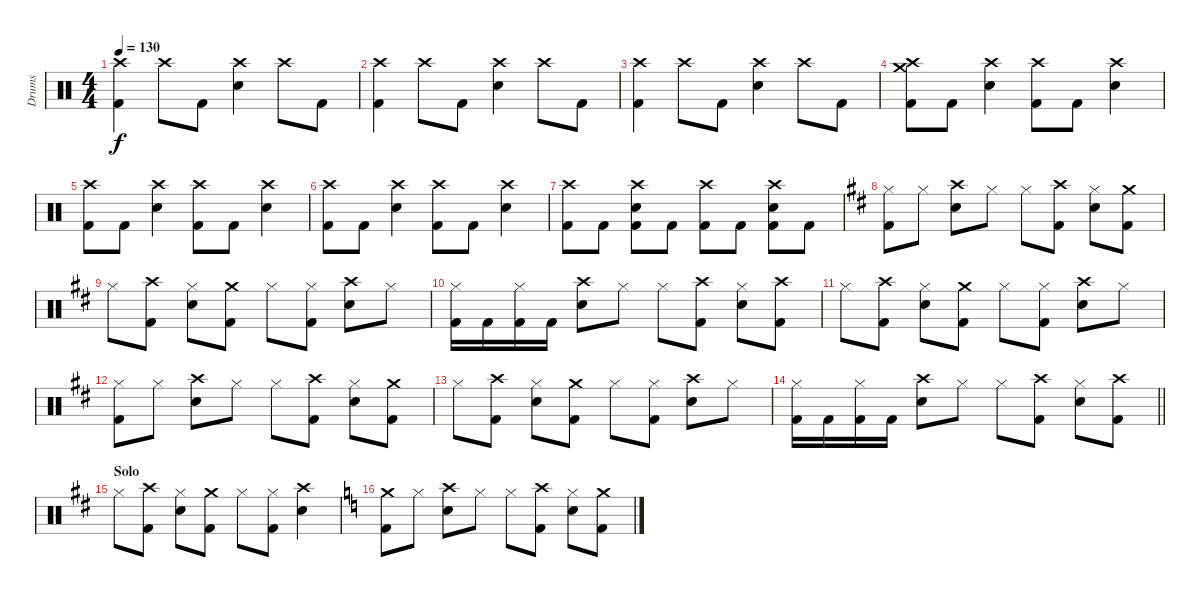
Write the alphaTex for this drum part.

\track ("Drums" "Drums") {instrument percussion}
\staff {score}
\articulation defaults
\ts (4 4)
\tempo 130
\clef neutral
\ks c
("Crash high (hit)" "Kick (hit) 2").4{dy f} "Crash high (hit)".8 "Kick (hit) 2".8 ("Crash high (hit)" "Snare (hit) 2").4 "Crash high (hit)".8 "Kick (hit) 2".8 |
("Crash high (hit)" "Kick (hit) 2").4 "Crash high (hit)".8 "Kick (hit) 2".8 ("Crash high (hit)" "Snare (hit) 2").4 "Crash high (hit)".8 "Kick (hit) 2".8 |
("Crash high (hit)" "Kick (hit) 2").4 "Crash high (hit)".8 "Kick (hit) 2".8 ("Crash high (hit)" "Snare (hit) 2").4 "Crash high (hit)".8 "Kick (hit) 2".8 |
("Crash high (hit)" "Crash medium (hit)" "Kick (hit) 2").8 "Kick (hit) 2".8 ("Crash high (hit)" "Snare (hit) 2").4 ("Crash high (hit)" "Kick (hit) 2").8 "Kick (hit) 2".8 ("Crash high (hit)" "Snare (hit) 2").4 |
("Crash high (hit)" "Kick (hit) 2").8 "Kick (hit) 2".8 ("Crash high (hit)" "Snare (hit) 2").4 ("Crash high (hit)" "Kick (hit) 2").8 "Kick (hit) 2".8 ("Crash high (hit)" "Snare (hit) 2").4 |
("Crash high (hit)" "Kick (hit) 2").8 "Kick (hit) 2".8 ("Crash high (hit)" "Snare (hit) 2").4 ("Crash high (hit)" "Kick (hit) 2").8 "Kick (hit) 2".8 ("Crash high (hit)" "Snare (hit) 2").4 |
("Crash high (hit)" "Kick (hit) 2").8 "Kick (hit) 2".8 ("Crash high (hit)" "Snare (hit) 2" "Kick (hit) 2").8 "Kick (hit) 2".8 ("Crash high (hit)" "Kick (hit) 2").8 "Kick (hit) 2".8 ("Crash high (hit)" "Snare (hit) 2" "Kick (hit) 2").8 "Kick (hit) 2".8 |
\ks d
("Hi-Hat (closed)" "Kick (hit) 2").8 "Hi-Hat (closed)".8 ("Crash high (hit)" "Snare (hit) 2").8 "Hi-Hat (closed)".8 "Hi-Hat (closed)".8 ("Crash high (hit)" "Kick (hit) 2").8 ("Hi-Hat (closed)" "Snare (hit) 2").8 ("Crash medium (hit)" "Kick (hit) 2").8 |
"Hi-Hat (closed)".8 ("Crash high (hit)" "Kick (hit) 2").8 ("Hi-Hat (closed)" "Snare (hit) 2").8 ("Crash medium (hit)" "Kick (hit) 2").8 "Hi-Hat (closed)".8 ("Hi-Hat (closed)" "Kick (hit) 2").8 ("Crash high (hit)" "Snare (hit) 2").8 "Hi-Hat (closed)".8 |
("Hi-Hat (closed)" "Kick (hit) 2").16 "Kick (hit) 2".16 ("Hi-Hat (closed)" "Kick (hit) 2").16 "Kick (hit) 2".16 ("Crash high (hit)" "Snare (hit) 2").8 "Hi-Hat (closed)".8 "Hi-Hat (closed)".8 ("Crash high (hit)" "Kick (hit) 2").8 ("Hi-Hat (closed)" "Snare (hit) 2").8 ("Crash high (hit)" "Kick (hit) 2").8 |
"Hi-Hat (closed)".8 ("Crash high (hit)" "Kick (hit) 2").8 ("Hi-Hat (closed)" "Snare (hit) 2").8 ("Crash medium (hit)" "Kick (hit) 2").8 "Hi-Hat (closed)".8 ("Hi-Hat (closed)" "Kick (hit) 2").8 ("Crash high (hit)" "Snare (hit) 2").8 "Hi-Hat (closed)".8 |
("Hi-Hat (closed)" "Kick (hit) 2").8 "Hi-Hat (closed)".8 ("Crash high (hit)" "Snare (hit) 2").8 "Hi-Hat (closed)".8 "Hi-Hat (closed)".8 ("Crash high (hit)" "Kick (hit) 2").8 ("Hi-Hat (closed)" "Snare (hit) 2").8 ("Crash medium (hit)" "Kick (hit) 2").8 |
"Hi-Hat (closed)".8 ("Crash high (hit)" "Kick (hit) 2").8 ("Hi-Hat (closed)" "Snare (hit) 2").8 ("Crash medium (hit)" "Kick (hit) 2").8 "Hi-Hat (closed)".8 ("Hi-Hat (closed)" "Kick (hit) 2").8 ("Crash high (hit)" "Snare (hit) 2").8 "Hi-Hat (closed)".8 |
\barLineRight lightlight
("Hi-Hat (closed)" "Kick (hit) 2").16 "Kick (hit) 2".16 ("Hi-Hat (closed)" "Kick (hit) 2").16 "Kick (hit) 2".16 ("Crash high (hit)" "Snare (hit) 2").8 "Hi-Hat (closed)".8 "Hi-Hat (closed)".8 ("Crash high (hit)" "Kick (hit) 2").8 ("Hi-Hat (closed)" "Snare (hit) 2").8 ("Crash high (hit)" "Kick (hit) 2").8 |
\section ("" "Solo")
"Hi-Hat (closed)".8 ("Crash high (hit)" "Kick (hit) 2").8 ("Hi-Hat (closed)" "Snare (hit) 2").8 ("Crash medium (hit)" "Kick (hit) 2").8 "Hi-Hat (closed)".8 ("Hi-Hat (closed)" "Kick (hit) 2").8 ("Crash high (hit)" "Snare (hit) 2").4 |
\ks c
("Crash medium (hit)" "Kick (hit) 2").8 "Hi-Hat (closed)".8 ("Crash high (hit)" "Snare (hit) 2").8 "Hi-Hat (closed)".8 "Hi-Hat (closed)".8 ("Crash high (hit)" "Kick (hit) 2").8 ("Hi-Hat (closed)" "Snare (hit) 2").8 ("Crash medium (hit)" "Kick (hit) 2").8
